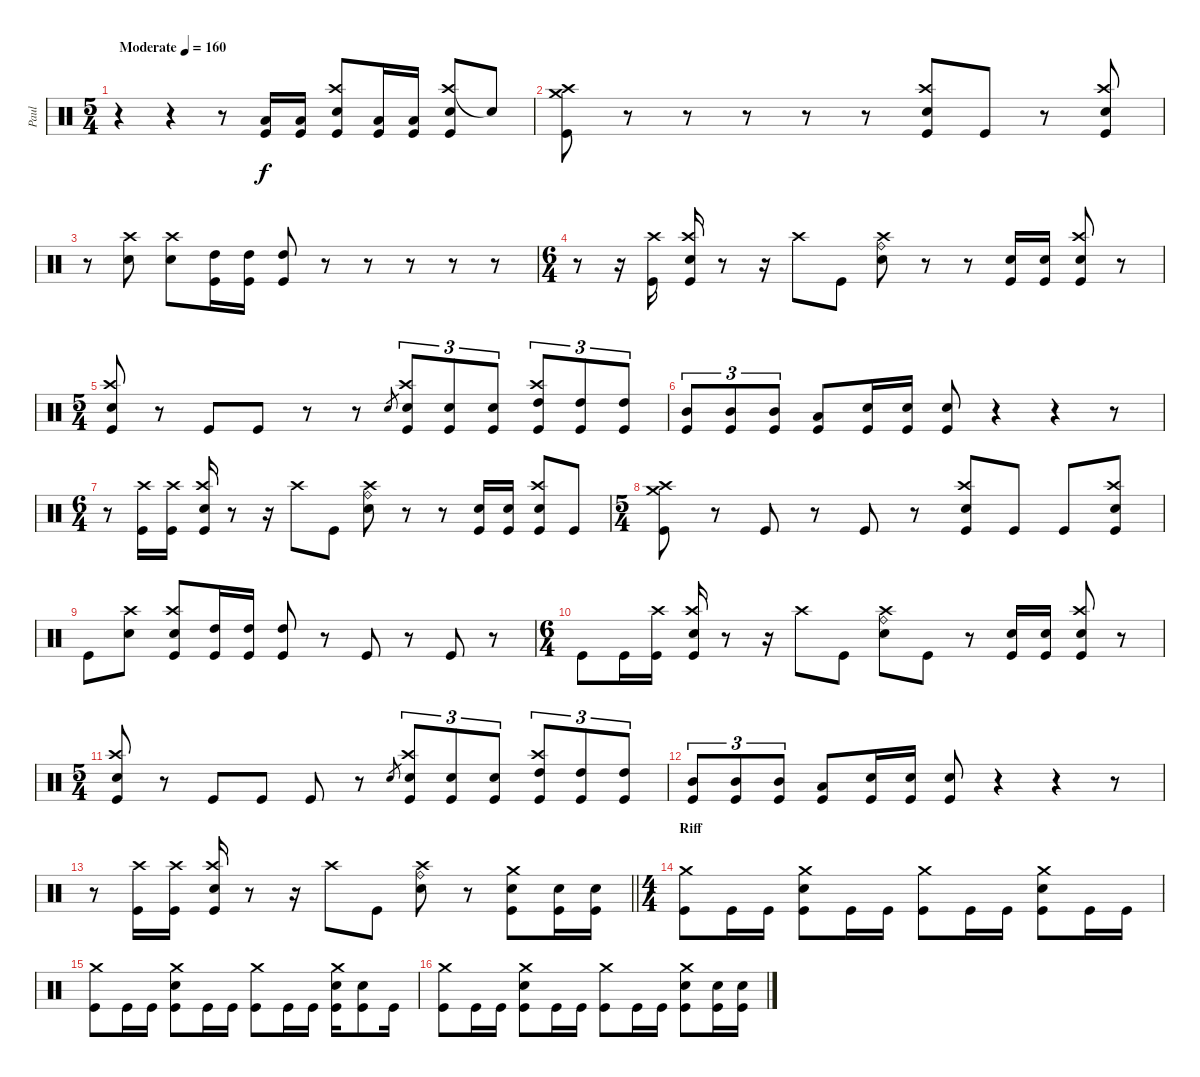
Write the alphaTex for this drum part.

\track ("Paul" "Paul") {instrument percussion}
\staff {score}
\articulation defaults
\ts (5 4)
\tempo (160 "Moderate")
\clef neutral
\ks c
r.4{dy f} r.4 r.8 ("Low Tom (hit)" "Kick (hit)").16 ("Low Tom (hit)" "Kick (hit)").16 ("Crash high (hit)" "Electric Snare (hit)" "Kick (hit)").8 ("Low Tom (hit)" "Kick (hit)").16 ("Low Tom (hit)" "Kick (hit)").16 ("Crash high (hit)" "Electric Snare (hit)" "Kick (hit)").8 "Snare (hit)"{t}.8 |
("Crash high (hit)" "Crash medium (hit)" "Kick (hit)").8 r.8 r.8 r.8 r.8 r.8 ("Crash high (hit)" "Electric Snare (hit)" "Kick (hit)").8 "Kick (hit)".8 r.8 ("Crash high (hit)" "Electric Snare (hit)" "Kick (hit)").8 |
r.8 ("Crash high (hit)" "Electric Snare (hit)").8 ("Crash high (hit)" "Electric Snare (hit)").8 ("High Tom (hit)" "Kick (hit)").16 ("High Tom (hit)" "Kick (hit)").16 ("High Tom (hit)" "Kick (hit)").8 r.8 r.8 r.8 r.8 r.8 |
\ts (6 4)
r.8 r.16 ("Crash high (hit)" "Kick (hit)").16 ("Crash high (hit)" "Electric Snare (hit)" "Kick (hit)").16 r.8 r.16 "Crash high (hit)".8 "Kick (hit)".8 ("Crash high (hit)" "Electric Snare (hit)" "Ride (bell)").8 r.8 r.8 ("Electric Snare (hit)" "Kick (hit)").16 ("Electric Snare (hit)" "Kick (hit)").16 ("Crash high (hit)" "Electric Snare (hit)" "Kick (hit)").8 r.8 |
\ts (5 4)
("Crash high (hit)" "Electric Snare (hit)" "Kick (hit)").8 r.8 "Kick (hit)".8 "Kick (hit)".8 r.8 r.8 "Electric Snare (hit)".8{gr} ("Crash high (hit)" "Electric Snare (hit)" "Kick (hit)").8{tu (3 2)} ("Electric Snare (hit)" "Kick (hit)").8{tu (3 2)} ("Electric Snare (hit)" "Kick (hit)").8{tu (3 2)} ("Crash high (hit)" "High Tom (hit)" "Kick (hit)").8{tu (3 2)} ("High Tom (hit)" "Kick (hit)").8{tu (3 2)} ("High Tom (hit)" "Kick (hit)").8{tu (3 2)} |
("Mid Tom (hit)" "Kick (hit)").8{tu (3 2)} ("Mid Tom (hit)" "Kick (hit)").8{tu (3 2)} ("Mid Tom (hit)" "Kick (hit)").8{tu (3 2)} ("Low Tom (hit)" "Kick (hit)").8 ("Electric Snare (hit)" "Kick (hit)").16 ("Electric Snare (hit)" "Kick (hit)").16 ("Electric Snare (hit)" "Kick (hit)").8 r.4 r.4 r.8 |
\ts (6 4)
r.8 ("Crash high (hit)" "Kick (hit)").16 ("Crash high (hit)" "Kick (hit)").16 ("Crash high (hit)" "Electric Snare (hit)" "Kick (hit)").16 r.8 r.16 "Crash high (hit)".8 "Kick (hit)".8 ("Crash high (hit)" "Electric Snare (hit)" "Ride (bell)").8 r.8 r.8 ("Electric Snare (hit)" "Kick (hit)").16 ("Electric Snare (hit)" "Kick (hit)").16 ("Crash high (hit)" "Electric Snare (hit)" "Kick (hit)").8 "Kick (hit)".8 |
\ts (5 4)
("Crash high (hit)" "Crash medium (hit)" "Kick (hit)").8 r.8 "Kick (hit)".8 r.8 "Kick (hit)".8 r.8 ("Crash high (hit)" "Electric Snare (hit)" "Kick (hit)").8 "Kick (hit)".8 "Kick (hit)".8 ("Crash high (hit)" "Electric Snare (hit)" "Kick (hit)").8 |
"Kick (hit)".8 ("Crash high (hit)" "Electric Snare (hit)").8 ("Crash high (hit)" "Electric Snare (hit)" "Kick (hit)").8 ("High Tom (hit)" "Kick (hit)").16 ("High Tom (hit)" "Kick (hit)").16 ("High Tom (hit)" "Kick (hit)").8 r.8 "Kick (hit)".8 r.8 "Kick (hit)".8 r.8 |
\ts (6 4)
"Kick (hit)".8 "Kick (hit)".16 ("Crash high (hit)" "Kick (hit)").16 ("Crash high (hit)" "Electric Snare (hit)" "Kick (hit)").16 r.8 r.16 "Crash high (hit)".8 "Kick (hit)".8 ("Crash high (hit)" "Electric Snare (hit)" "Ride (bell)").8 "Kick (hit)".8 r.8 ("Electric Snare (hit)" "Kick (hit)").16 ("Electric Snare (hit)" "Kick (hit)").16 ("Crash high (hit)" "Electric Snare (hit)" "Kick (hit)").8 r.8 |
\ts (5 4)
("Crash high (hit)" "Electric Snare (hit)" "Kick (hit)").8 r.8 "Kick (hit)".8 "Kick (hit)".8 "Kick (hit)".8 r.8 "Electric Snare (hit)".8{gr} ("Crash high (hit)" "Electric Snare (hit)" "Kick (hit)").8{tu (3 2)} ("Electric Snare (hit)" "Kick (hit)").8{tu (3 2)} ("Electric Snare (hit)" "Kick (hit)").8{tu (3 2)} ("Crash high (hit)" "High Tom (hit)" "Kick (hit)").8{tu (3 2)} ("High Tom (hit)" "Kick (hit)").8{tu (3 2)} ("High Tom (hit)" "Kick (hit)").8{tu (3 2)} |
("Mid Tom (hit)" "Kick (hit)").8{tu (3 2)} ("Mid Tom (hit)" "Kick (hit)").8{tu (3 2)} ("Mid Tom (hit)" "Kick (hit)").8{tu (3 2)} ("Low Tom (hit)" "Kick (hit)").8 ("Electric Snare (hit)" "Kick (hit)").16 ("Electric Snare (hit)" "Kick (hit)").16 ("Electric Snare (hit)" "Kick (hit)").8 r.4 r.4 r.8 |
\barLineRight lightlight
r.8 ("Crash high (hit)" "Kick (hit)").16 ("Crash high (hit)" "Kick (hit)").16 ("Crash high (hit)" "Electric Snare (hit)" "Kick (hit)").16 r.8 r.16 "Crash high (hit)".8 "Kick (hit)".8 ("Crash high (hit)" "Electric Snare (hit)" "Ride (bell)").8 r.8 ("Crash medium (hit)" "Electric Snare (hit)" "Kick (hit)").8 ("Electric Snare (hit)" "Kick (hit)").16 ("Electric Snare (hit)" "Kick (hit)").16 |
\ts (4 4)
\section ("" "Riff")
("Crash medium (hit)" "Kick (hit)").8 "Kick (hit)".16 "Kick (hit)".16 ("Crash medium (hit)" "Electric Snare (hit)" "Kick (hit)").8 "Kick (hit)".16 "Kick (hit)".16 ("Crash medium (hit)" "Kick (hit)").8 "Kick (hit)".16 "Kick (hit)".16 ("Crash medium (hit)" "Electric Snare (hit)" "Kick (hit)").8 "Kick (hit)".16 "Kick (hit)".16 |
("Crash medium (hit)" "Kick (hit)").8 "Kick (hit)".16 "Kick (hit)".16 ("Crash medium (hit)" "Electric Snare (hit)" "Kick (hit)").8 "Kick (hit)".16 "Kick (hit)".16 ("Crash medium (hit)" "Kick (hit)").8 "Kick (hit)".16 "Kick (hit)".16 ("Crash medium (hit)" "Electric Snare (hit)" "Kick (hit)").16 ("Electric Snare (hit)" "Kick (hit)").8 "Kick (hit)".16 |
("Crash medium (hit)" "Kick (hit)").8 "Kick (hit)".16 "Kick (hit)".16 ("Crash medium (hit)" "Electric Snare (hit)" "Kick (hit)").8 "Kick (hit)".16 "Kick (hit)".16 ("Crash medium (hit)" "Kick (hit)").8 "Kick (hit)".16 "Kick (hit)".16 ("Crash medium (hit)" "Electric Snare (hit)" "Kick (hit)").8 ("Electric Snare (hit)" "Kick (hit)").16 ("Electric Snare (hit)" "Kick (hit)").16
